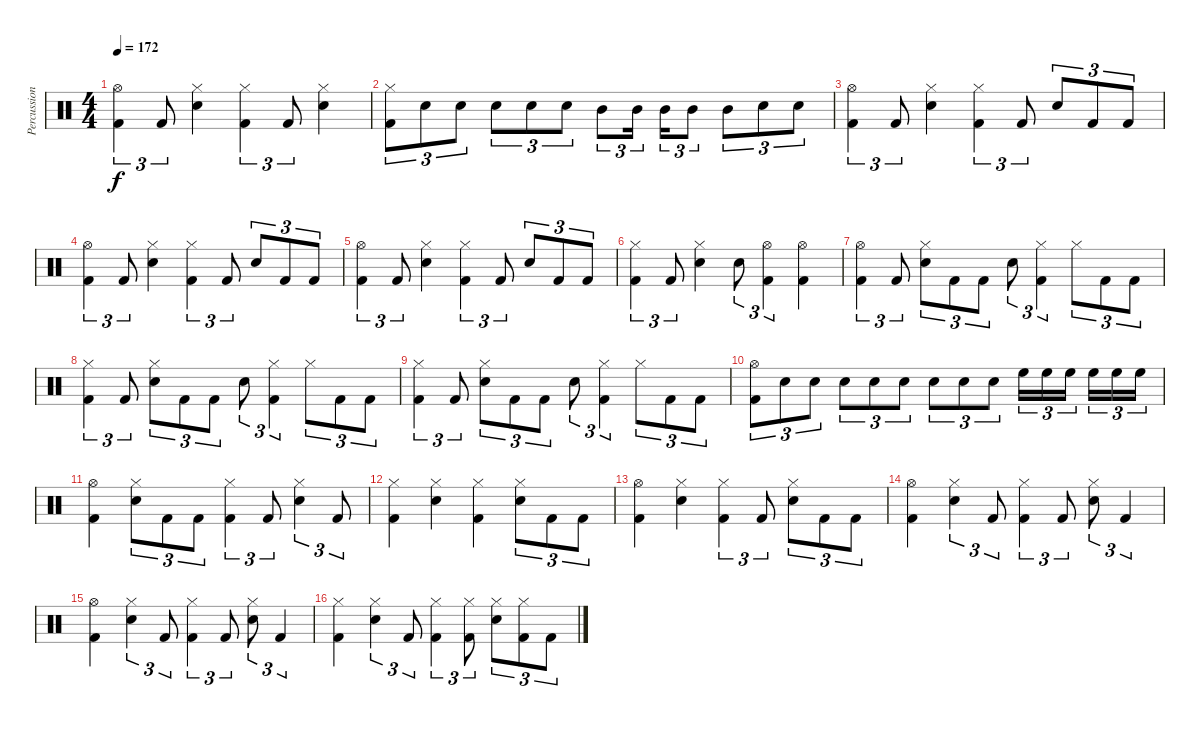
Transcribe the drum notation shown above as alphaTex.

\track ("Percussions" "Percussion") {instrument percussion}
\staff {score}
\articulation defaults
\ts (4 4)
\tempo 172
\clef neutral
\ks c
("Hi-Hat (open)" "Kick (hit) 2").4{tu (3 2) dy f} "Kick (hit) 2".8{tu (3 2)} ("Hi-Hat (closed)" "Snare (hit) 2").4 ("Hi-Hat (closed)" "Kick (hit) 2").4{tu (3 2)} "Kick (hit) 2".8{tu (3 2)} ("Hi-Hat (closed)" "Snare (hit) 2").4 |
("Hi-Hat (closed)" "Kick (hit) 2").8{tu (3 2)} "Snare (hit) 2".8{tu (3 2)} "Snare (hit) 2".8{tu (3 2)} "Snare (hit) 2".8{tu (3 2)} "Snare (hit) 2".8{tu (3 2)} "Snare (hit) 2".8{tu (3 2)} "Mid Tom (hit)".8{tu (3 2)} "Mid Tom (hit)".16{tu (3 2)} "Mid Tom (hit)".16{tu (3 2)} "Mid Tom (hit)".8{tu (3 2)} "Mid Tom (hit)".8{tu (3 2)} "Snare (hit) 2".8{tu (3 2)} "Snare (hit) 2".8{tu (3 2)} |
("Hi-Hat (open)" "Kick (hit) 2").4{tu (3 2)} "Kick (hit) 2".8{tu (3 2)} ("Hi-Hat (closed)" "Snare (hit) 2").4 ("Hi-Hat (closed)" "Kick (hit) 2").4{tu (3 2)} "Kick (hit) 2".8{tu (3 2)} "Snare (hit) 2".8{tu (3 2)} "Kick (hit) 2".8{tu (3 2)} "Kick (hit) 2".8{tu (3 2)} |
("Hi-Hat (open)" "Kick (hit) 2").4{tu (3 2)} "Kick (hit) 2".8{tu (3 2)} ("Hi-Hat (closed)" "Snare (hit) 2").4 ("Hi-Hat (closed)" "Kick (hit) 2").4{tu (3 2)} "Kick (hit) 2".8{tu (3 2)} "Snare (hit) 2".8{tu (3 2)} "Kick (hit) 2".8{tu (3 2)} "Kick (hit) 2".8{tu (3 2)} |
("Hi-Hat (open)" "Kick (hit) 2").4{tu (3 2)} "Kick (hit) 2".8{tu (3 2)} ("Hi-Hat (closed)" "Snare (hit) 2").4 ("Hi-Hat (closed)" "Kick (hit) 2").4{tu (3 2)} "Kick (hit) 2".8{tu (3 2)} "Snare (hit) 2".8{tu (3 2)} "Kick (hit) 2".8{tu (3 2)} "Kick (hit) 2".8{tu (3 2)} |
("Hi-Hat (closed)" "Kick (hit) 2").4{tu (3 2)} "Kick (hit) 2".8{tu (3 2)} ("Hi-Hat (closed)" "Snare (hit) 2").4 "Snare (hit) 2".8{tu (3 2)} ("Hi-Hat (open)" "Kick (hit) 2").4{tu (3 2)} ("Hi-Hat (open)" "Kick (hit) 2").4 |
("Hi-Hat (open)" "Kick (hit) 2").4{tu (3 2)} "Kick (hit) 2".8{tu (3 2)} ("Hi-Hat (closed)" "Snare (hit) 2").8{tu (3 2)} "Kick (hit) 2".8{tu (3 2)} "Kick (hit) 2".8{tu (3 2)} "Snare (hit) 2".8{tu (3 2)} ("Hi-Hat (closed)" "Kick (hit) 2").4{tu (3 2)} "Hi-Hat (closed)".8{tu (3 2)} "Kick (hit) 2".8{tu (3 2)} "Kick (hit) 2".8{tu (3 2)} |
("Hi-Hat (closed)" "Kick (hit) 2").4{tu (3 2)} "Kick (hit) 2".8{tu (3 2)} ("Hi-Hat (closed)" "Snare (hit) 2").8{tu (3 2)} "Kick (hit) 2".8{tu (3 2)} "Kick (hit) 2".8{tu (3 2)} "Snare (hit) 2".8{tu (3 2)} ("Hi-Hat (closed)" "Kick (hit) 2").4{tu (3 2)} "Hi-Hat (closed)".8{tu (3 2)} "Kick (hit) 2".8{tu (3 2)} "Kick (hit) 2".8{tu (3 2)} |
("Hi-Hat (closed)" "Kick (hit) 2").4{tu (3 2)} "Kick (hit) 2".8{tu (3 2)} ("Hi-Hat (closed)" "Snare (hit) 2").8{tu (3 2)} "Kick (hit) 2".8{tu (3 2)} "Kick (hit) 2".8{tu (3 2)} "Snare (hit) 2".8{tu (3 2)} ("Hi-Hat (closed)" "Kick (hit) 2").4{tu (3 2)} "Hi-Hat (closed)".8{tu (3 2)} "Kick (hit) 2".8{tu (3 2)} "Kick (hit) 2".8{tu (3 2)} |
("Hi-Hat (open)" "Kick (hit) 2").8{tu (3 2)} "Snare (hit) 2".8{tu (3 2)} "Snare (hit) 2".8{tu (3 2)} "Snare (hit) 2".8{tu (3 2)} "Snare (hit) 2".8{tu (3 2)} "Snare (hit) 2".8{tu (3 2)} "Snare (hit) 2".8{tu (3 2)} "Snare (hit) 2".8{tu (3 2)} "Snare (hit) 2".8{tu (3 2)} "High Floor Tom (hit)".16{tu (3 2)} "High Floor Tom (hit)".16{tu (3 2)} "High Floor Tom (hit)".16{tu (3 2)} "High Floor Tom (hit)".16{tu (3 2)} "High Floor Tom (hit)".16{tu (3 2)} "High Floor Tom (hit)".16{tu (3 2)} |
("Hi-Hat (open)" "Kick (hit) 2").4 ("Hi-Hat (closed)" "Snare (hit) 2").8{tu (3 2)} "Kick (hit) 2".8{tu (3 2)} "Kick (hit) 2".8{tu (3 2)} ("Hi-Hat (closed)" "Kick (hit) 2").4{tu (3 2)} "Kick (hit) 2".8{tu (3 2)} ("Hi-Hat (closed)" "Snare (hit) 2").4{tu (3 2)} "Kick (hit) 2".8{tu (3 2)} |
("Hi-Hat (closed)" "Kick (hit) 2").4 ("Hi-Hat (closed)" "Snare (hit) 2").4 ("Hi-Hat (closed)" "Kick (hit) 2").4 ("Hi-Hat (closed)" "Snare (hit) 2").8{tu (3 2)} "Kick (hit) 2".8{tu (3 2)} "Kick (hit) 2".8{tu (3 2)} |
("Hi-Hat (open)" "Kick (hit) 2").4 ("Hi-Hat (closed)" "Snare (hit) 2").4 ("Hi-Hat (closed)" "Kick (hit) 2").4{tu (3 2)} "Kick (hit) 2".8{tu (3 2)} ("Hi-Hat (closed)" "Snare (hit) 2").8{tu (3 2)} "Kick (hit) 2".8{tu (3 2)} "Kick (hit) 2".8{tu (3 2)} |
("Hi-Hat (open)" "Kick (hit) 2").4 ("Hi-Hat (closed)" "Snare (hit) 2").4{tu (3 2)} "Kick (hit) 2".8{tu (3 2)} ("Hi-Hat (closed)" "Kick (hit) 2").4{tu (3 2)} "Kick (hit) 2".8{tu (3 2)} ("Hi-Hat (closed)" "Snare (hit) 2").8{tu (3 2)} "Kick (hit) 2".4{tu (3 2)} |
("Hi-Hat (open)" "Kick (hit) 2").4 ("Hi-Hat (closed)" "Snare (hit) 2").4{tu (3 2)} "Kick (hit) 2".8{tu (3 2)} ("Hi-Hat (closed)" "Kick (hit) 2").4{tu (3 2)} "Kick (hit) 2".8{tu (3 2)} ("Hi-Hat (closed)" "Snare (hit) 2").8{tu (3 2)} "Kick (hit) 2".4{tu (3 2)} |
("Hi-Hat (closed)" "Kick (hit) 2").4 ("Hi-Hat (closed)" "Snare (hit) 2").4{tu (3 2)} "Kick (hit) 2".8{tu (3 2)} ("Hi-Hat (closed)" "Kick (hit) 2").4{tu (3 2)} ("Hi-Hat (closed)" "Kick (hit) 2").8{tu (3 2)} ("Hi-Hat (closed)" "Snare (hit) 2").8{tu (3 2)} ("Hi-Hat (closed)" "Kick (hit) 2").8{tu (3 2)} "Kick (hit) 2".8{tu (3 2)}
